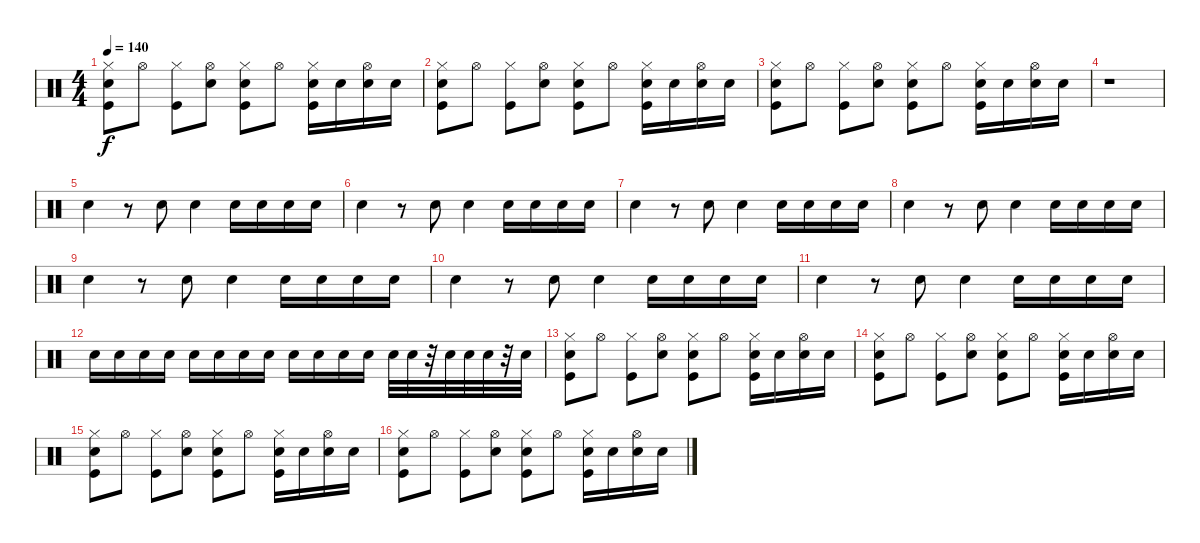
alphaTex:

\track "" {instrument percussion}
\staff {score}
\articulation defaults
\ts (4 4)
\tempo 140
\clef neutral
\ks c
("Snare (hit) 2" "Hi-Hat (closed)" "Kick (hit)").8{dy f} "Hi-Hat (open)".8 ("Hi-Hat (closed)" "Kick (hit)").8 ("Snare (hit) 2" "Hi-Hat (open)").8 ("Snare (hit) 2" "Hi-Hat (closed)" "Kick (hit)").8 "Hi-Hat (open)".8 ("Snare (hit) 2" "Hi-Hat (closed)" "Kick (hit)").16 "Snare (hit) 2".16 ("Snare (hit) 2" "Hi-Hat (open)").16 "Snare (hit) 2".16 |
("Snare (hit) 2" "Hi-Hat (closed)" "Kick (hit)").8 "Hi-Hat (open)".8 ("Hi-Hat (closed)" "Kick (hit)").8 ("Snare (hit) 2" "Hi-Hat (open)").8 ("Snare (hit) 2" "Hi-Hat (closed)" "Kick (hit)").8 "Hi-Hat (open)".8 ("Snare (hit) 2" "Hi-Hat (closed)" "Kick (hit)").16 "Snare (hit) 2".16 ("Snare (hit) 2" "Hi-Hat (open)").16 "Snare (hit) 2".16 |
("Snare (hit) 2" "Hi-Hat (closed)" "Kick (hit)").8 "Hi-Hat (open)".8 ("Hi-Hat (closed)" "Kick (hit)").8 ("Snare (hit) 2" "Hi-Hat (open)").8 ("Snare (hit) 2" "Hi-Hat (closed)" "Kick (hit)").8 "Hi-Hat (open)".8 ("Snare (hit) 2" "Hi-Hat (closed)" "Kick (hit)").16 "Snare (hit) 2".16 ("Snare (hit) 2" "Hi-Hat (open)").16 "Snare (hit) 2".16 |
r.1 |
"Snare (hit) 2".4 r.8 "Snare (hit) 2".8 "Snare (hit) 2".4 "Snare (hit) 2".16 "Snare (hit) 2".16 "Snare (hit) 2".16 "Snare (hit) 2".16 |
"Snare (hit) 2".4 r.8 "Snare (hit) 2".8 "Snare (hit) 2".4 "Snare (hit) 2".16 "Snare (hit) 2".16 "Snare (hit) 2".16 "Snare (hit) 2".16 |
"Snare (hit) 2".4 r.8 "Snare (hit) 2".8 "Snare (hit) 2".4 "Snare (hit) 2".16 "Snare (hit) 2".16 "Snare (hit) 2".16 "Snare (hit) 2".16 |
"Snare (hit) 2".4 r.8 "Snare (hit) 2".8 "Snare (hit) 2".4 "Snare (hit) 2".16 "Snare (hit) 2".16 "Snare (hit) 2".16 "Snare (hit) 2".16 |
"Snare (hit) 2".4 r.8 "Snare (hit) 2".8 "Snare (hit) 2".4 "Snare (hit) 2".16 "Snare (hit) 2".16 "Snare (hit) 2".16 "Snare (hit) 2".16 |
"Snare (hit) 2".4 r.8 "Snare (hit) 2".8 "Snare (hit) 2".4 "Snare (hit) 2".16 "Snare (hit) 2".16 "Snare (hit) 2".16 "Snare (hit) 2".16 |
"Snare (hit) 2".4 r.8 "Snare (hit) 2".8 "Snare (hit) 2".4 "Snare (hit) 2".16 "Snare (hit) 2".16 "Snare (hit) 2".16 "Snare (hit) 2".16 |
"Snare (hit) 2".16 "Snare (hit) 2".16 "Snare (hit) 2".16 "Snare (hit) 2".16 "Snare (hit) 2".16 "Snare (hit) 2".16 "Snare (hit) 2".16 "Snare (hit) 2".16 "Snare (hit) 2".16 "Snare (hit) 2".16 "Snare (hit) 2".16 "Snare (hit) 2".16 "Snare (hit) 2".32 "Snare (hit) 2".32 r.32 "Snare (hit) 2".32 "Snare (hit) 2".32 "Electric Snare (hit)".32 r.32 "Electric Snare (hit)".32 |
("Snare (hit) 2" "Hi-Hat (closed)" "Kick (hit)").8 "Hi-Hat (open)".8 ("Hi-Hat (closed)" "Kick (hit)").8 ("Snare (hit) 2" "Hi-Hat (open)").8 ("Snare (hit) 2" "Hi-Hat (closed)" "Kick (hit)").8 "Hi-Hat (open)".8 ("Snare (hit) 2" "Hi-Hat (closed)" "Kick (hit)").16 "Snare (hit) 2".16 ("Snare (hit) 2" "Hi-Hat (open)").16 "Snare (hit) 2".16 |
("Snare (hit) 2" "Hi-Hat (closed)" "Kick (hit)").8 "Hi-Hat (open)".8 ("Hi-Hat (closed)" "Kick (hit)").8 ("Snare (hit) 2" "Hi-Hat (open)").8 ("Snare (hit) 2" "Hi-Hat (closed)" "Kick (hit)").8 "Hi-Hat (open)".8 ("Snare (hit) 2" "Hi-Hat (closed)" "Kick (hit)").16 "Snare (hit) 2".16 ("Snare (hit) 2" "Hi-Hat (open)").16 "Snare (hit) 2".16 |
("Snare (hit) 2" "Hi-Hat (closed)" "Kick (hit)").8 "Hi-Hat (open)".8 ("Hi-Hat (closed)" "Kick (hit)").8 ("Snare (hit) 2" "Hi-Hat (open)").8 ("Snare (hit) 2" "Hi-Hat (closed)" "Kick (hit)").8 "Hi-Hat (open)".8 ("Snare (hit) 2" "Hi-Hat (closed)" "Kick (hit)").16 "Snare (hit) 2".16 ("Snare (hit) 2" "Hi-Hat (open)").16 "Snare (hit) 2".16 |
("Snare (hit) 2" "Hi-Hat (closed)" "Kick (hit)").8 "Hi-Hat (open)".8 ("Hi-Hat (closed)" "Kick (hit)").8 ("Snare (hit) 2" "Hi-Hat (open)").8 ("Snare (hit) 2" "Hi-Hat (closed)" "Kick (hit)").8 "Hi-Hat (open)".8 ("Snare (hit) 2" "Hi-Hat (closed)" "Kick (hit)").16 "Snare (hit) 2".16 ("Snare (hit) 2" "Hi-Hat (open)").16 "Snare (hit) 2".16
